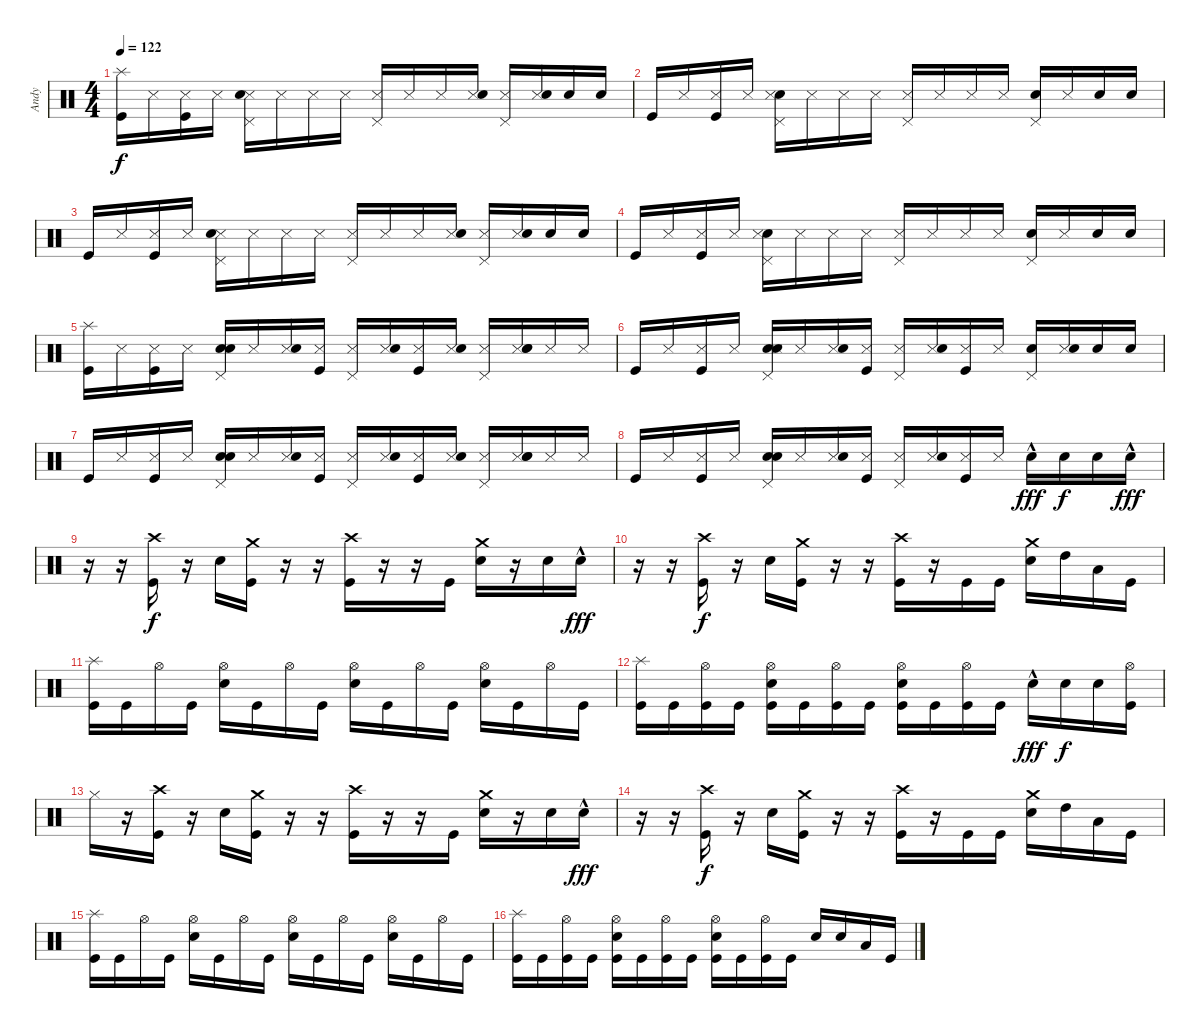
\track ("Andy" "Andy") {instrument percussion}
\staff {score}
\articulation defaults
\ts (4 4)
\tempo 122
\clef neutral
\ks c
("Kick (hit)" "Splash (hit)").16{dy f} "Snare (side stick) 3".16 ("Kick (hit)" "Snare (side stick) 3").16 "Snare (side stick) 3".16 ("Snare (side stick) 3" "Pedal Hi-Hat (hit)" "Hand Clap (hit)").16 "Snare (side stick) 3".16 "Snare (side stick) 3".16 "Snare (side stick) 3".16 ("Snare (side stick) 3" "Pedal Hi-Hat (hit)").16 "Snare (side stick) 3".16 "Snare (side stick) 3".16 ("Snare (side stick) 3" "Hand Clap (hit)").16 ("Snare (side stick) 3" "Pedal Hi-Hat (hit)").16 ("Snare (side stick) 3" "Hand Clap (hit)").16 "Snare (hit) 2".16 "Snare (hit) 2".16 |
"Kick (hit)".16 "Snare (side stick) 3".16 ("Kick (hit)" "Snare (side stick) 3").16 "Snare (side stick) 3".16 ("Hand Clap (hit)" "Pedal Hi-Hat (hit)" "Snare (side stick) 3").16 "Snare (side stick) 3".16 "Snare (side stick) 3".16 "Snare (side stick) 3".16 ("Snare (side stick) 3" "Pedal Hi-Hat (hit)").16 "Snare (side stick) 3".16 "Snare (side stick) 3".16 "Snare (side stick) 3".16 ("Hand Clap (hit)" "Pedal Hi-Hat (hit)").16 "Snare (side stick) 3".16 "Snare (hit) 2".16 "Snare (hit) 2".16 |
"Kick (hit)".16 "Snare (side stick) 3".16 ("Kick (hit)" "Snare (side stick) 3").16 "Snare (side stick) 3".16 ("Snare (side stick) 3" "Pedal Hi-Hat (hit)" "Hand Clap (hit)").16 "Snare (side stick) 3".16 "Snare (side stick) 3".16 "Snare (side stick) 3".16 ("Snare (side stick) 3" "Pedal Hi-Hat (hit)").16 "Snare (side stick) 3".16 "Snare (side stick) 3".16 ("Snare (side stick) 3" "Hand Clap (hit)").16 ("Snare (side stick) 3" "Pedal Hi-Hat (hit)").16 ("Snare (side stick) 3" "Hand Clap (hit)").16 "Snare (hit) 2".16 "Snare (hit) 2".16 |
"Kick (hit)".16 "Snare (side stick) 3".16 ("Kick (hit)" "Snare (side stick) 3").16 "Snare (side stick) 3".16 ("Hand Clap (hit)" "Pedal Hi-Hat (hit)" "Snare (side stick) 3").16 "Snare (side stick) 3".16 "Snare (side stick) 3".16 "Snare (side stick) 3".16 ("Snare (side stick) 3" "Pedal Hi-Hat (hit)").16 "Snare (side stick) 3".16 "Snare (side stick) 3".16 "Snare (side stick) 3".16 ("Hand Clap (hit)" "Pedal Hi-Hat (hit)").16 "Snare (side stick) 3".16 "Snare (hit) 2".16 "Snare (hit) 2".16 |
("Kick (hit)" "Splash (hit)").16 "Snare (side stick) 3".16 ("Kick (hit)" "Snare (side stick) 3").16 "Snare (side stick) 3".16 ("Snare (hit) 2" "Pedal Hi-Hat (hit)" "Hand Clap (hit)").16 "Snare (side stick) 3".16 ("Snare (side stick) 3" "Snare (hit) 2").16 ("Snare (side stick) 3" "Kick (hit)").16 ("Snare (side stick) 3" "Pedal Hi-Hat (hit)").16 ("Snare (side stick) 3" "Snare (hit) 2").16 ("Snare (side stick) 3" "Kick (hit)").16 ("Snare (side stick) 3" "Hand Clap (hit)").16 ("Snare (side stick) 3" "Pedal Hi-Hat (hit)").16 ("Snare (side stick) 3" "Hand Clap (hit)" "Snare (hit) 2").16 "Snare (side stick) 3".16 "Snare (side stick) 3".16 |
"Kick (hit)".16 "Snare (side stick) 3".16 ("Kick (hit)" "Snare (side stick) 3").16 "Snare (side stick) 3".16 ("Hand Clap (hit)" "Pedal Hi-Hat (hit)" "Snare (side stick) 3" "Snare (hit) 2").16 "Snare (side stick) 3".16 ("Snare (side stick) 3" "Snare (hit) 2").16 ("Snare (side stick) 3" "Kick (hit)").16 ("Snare (side stick) 3" "Pedal Hi-Hat (hit)").16 ("Snare (side stick) 3" "Snare (hit) 2").16 ("Snare (side stick) 3" "Kick (hit)").16 "Snare (side stick) 3".16 ("Hand Clap (hit)" "Pedal Hi-Hat (hit)").16 ("Snare (side stick) 3" "Snare (hit) 2").16 "Snare (hit) 2".16 "Snare (hit) 2".16 |
"Kick (hit)".16 "Snare (side stick) 3".16 ("Kick (hit)" "Snare (side stick) 3").16 "Snare (side stick) 3".16 ("Snare (hit) 2" "Pedal Hi-Hat (hit)" "Hand Clap (hit)").16 "Snare (side stick) 3".16 ("Snare (side stick) 3" "Snare (hit) 2").16 ("Snare (side stick) 3" "Kick (hit)").16 ("Snare (side stick) 3" "Pedal Hi-Hat (hit)").16 ("Snare (side stick) 3" "Snare (hit) 2").16 ("Snare (side stick) 3" "Kick (hit)").16 ("Snare (side stick) 3" "Hand Clap (hit)").16 ("Snare (side stick) 3" "Pedal Hi-Hat (hit)").16 ("Snare (side stick) 3" "Hand Clap (hit)" "Snare (hit) 2").16 "Snare (side stick) 3".16 "Snare (side stick) 3".16 |
"Kick (hit)".16 "Snare (side stick) 3".16 ("Kick (hit)" "Snare (side stick) 3").16 "Snare (side stick) 3".16 ("Snare (hit) 2" "Pedal Hi-Hat (hit)" "Hand Clap (hit)").16 "Snare (side stick) 3".16 ("Snare (side stick) 3" "Snare (hit) 2").16 ("Snare (side stick) 3" "Kick (hit)").16 ("Snare (side stick) 3" "Pedal Hi-Hat (hit)").16 ("Snare (side stick) 3" "Snare (hit) 2").16 ("Snare (side stick) 3" "Kick (hit)").16 "Snare (side stick) 3".16 "Snare (hit) 2"{hac}.16{dy fff} "Snare (hit) 2".16{dy f} "Snare (hit) 2".16 "Snare (hit) 2"{hac}.16{dy fff} |
r.16 r.16 ("Crash high (hit)" "Kick (hit)").16{dy f} r.16 "Snare (hit) 2".16 ("Crash medium (hit)" "Kick (hit)").16 r.16 r.16 ("Crash high (hit)" "Kick (hit)").16 r.16 r.16 "Kick (hit)".16 ("Crash medium (hit)" "Snare (hit) 2").16 r.16 "Snare (hit) 2".16 "Snare (hit) 2"{hac}.16{dy fff} |
r.16 r.16 ("Crash high (hit)" "Kick (hit)").16{dy f} r.16 "Snare (hit) 2".16 ("Crash medium (hit)" "Kick (hit)").16 r.16 r.16 ("Crash high (hit)" "Kick (hit)").16 r.16 "Kick (hit)".16 "Kick (hit)".16 ("Crash medium (hit)" "Snare (hit) 2").16 "High Tom (hit)".16 "Low Floor Tom (hit)".16 "Kick (hit)".16 |
("Splash (hit)" "Kick (hit)").16 "Kick (hit)".16 "Hi-Hat (open)".16 "Kick (hit)".16 ("Hi-Hat (open)" "Snare (hit) 2").16 "Kick (hit)".16 "Hi-Hat (open)".16 "Kick (hit)".16 ("Snare (hit) 2" "Hi-Hat (open)").16 "Kick (hit)".16 "Hi-Hat (open)".16 "Kick (hit)".16 ("Hi-Hat (open)" "Snare (hit) 2").16 "Kick (hit)".16 "Hi-Hat (open)".16 "Kick (hit)".16 |
("Splash (hit)" "Kick (hit)").16 "Kick (hit)".16 ("Hi-Hat (open)" "Kick (hit)").16 "Kick (hit)".16 ("Hi-Hat (open)" "Kick (hit)" "Snare (hit) 2").16 "Kick (hit)".16 ("Hi-Hat (open)" "Kick (hit)").16 "Kick (hit)".16 ("Snare (hit) 2" "Hi-Hat (open)" "Kick (hit)").16 "Kick (hit)".16 ("Hi-Hat (open)" "Kick (hit)").16 "Kick (hit)".16 "Snare (hit) 2"{hac}.16{dy fff} "Snare (hit) 2".16{dy f} "Snare (hit) 2".16 ("Kick (hit)" "Hi-Hat (open)").16 |
"Hi-Hat (closed)".16 r.16 ("Crash high (hit)" "Kick (hit)").16 r.16 "Snare (hit) 2".16 ("Crash medium (hit)" "Kick (hit)").16 r.16 r.16 ("Crash high (hit)" "Kick (hit)").16 r.16 r.16 "Kick (hit)".16 ("Crash medium (hit)" "Snare (hit) 2").16 r.16 "Snare (hit) 2".16 "Snare (hit) 2"{hac}.16{dy fff} |
r.16 r.16 ("Crash high (hit)" "Kick (hit)").16{dy f} r.16 "Snare (hit) 2".16 ("Crash medium (hit)" "Kick (hit)").16 r.16 r.16 ("Crash high (hit)" "Kick (hit)").16 r.16 "Kick (hit)".16 "Kick (hit)".16 ("Crash medium (hit)" "Snare (hit) 2").16 "High Tom (hit)".16 "Low Floor Tom (hit)".16 "Kick (hit)".16 |
("Splash (hit)" "Kick (hit)").16 "Kick (hit)".16 "Hi-Hat (open)".16 "Kick (hit)".16 ("Hi-Hat (open)" "Snare (hit) 2").16 "Kick (hit)".16 "Hi-Hat (open)".16 "Kick (hit)".16 ("Snare (hit) 2" "Hi-Hat (open)").16 "Kick (hit)".16 "Hi-Hat (open)".16 "Kick (hit)".16 ("Hi-Hat (open)" "Snare (hit) 2").16 "Kick (hit)".16 "Hi-Hat (open)".16 "Kick (hit)".16 |
("Splash (hit)" "Kick (hit)").16 "Kick (hit)".16 ("Hi-Hat (open)" "Kick (hit)").16 "Kick (hit)".16 ("Hi-Hat (open)" "Kick (hit)" "Snare (hit) 2").16 "Kick (hit)".16 ("Hi-Hat (open)" "Kick (hit)").16 "Kick (hit)".16 ("Snare (hit) 2" "Hi-Hat (open)" "Kick (hit)").16 "Kick (hit)".16 ("Hi-Hat (open)" "Kick (hit)").16 "Kick (hit)".16 "Snare (hit) 2".16 "Snare (hit) 2".16 "Low Floor Tom (hit)".16 "Kick (hit)".16
